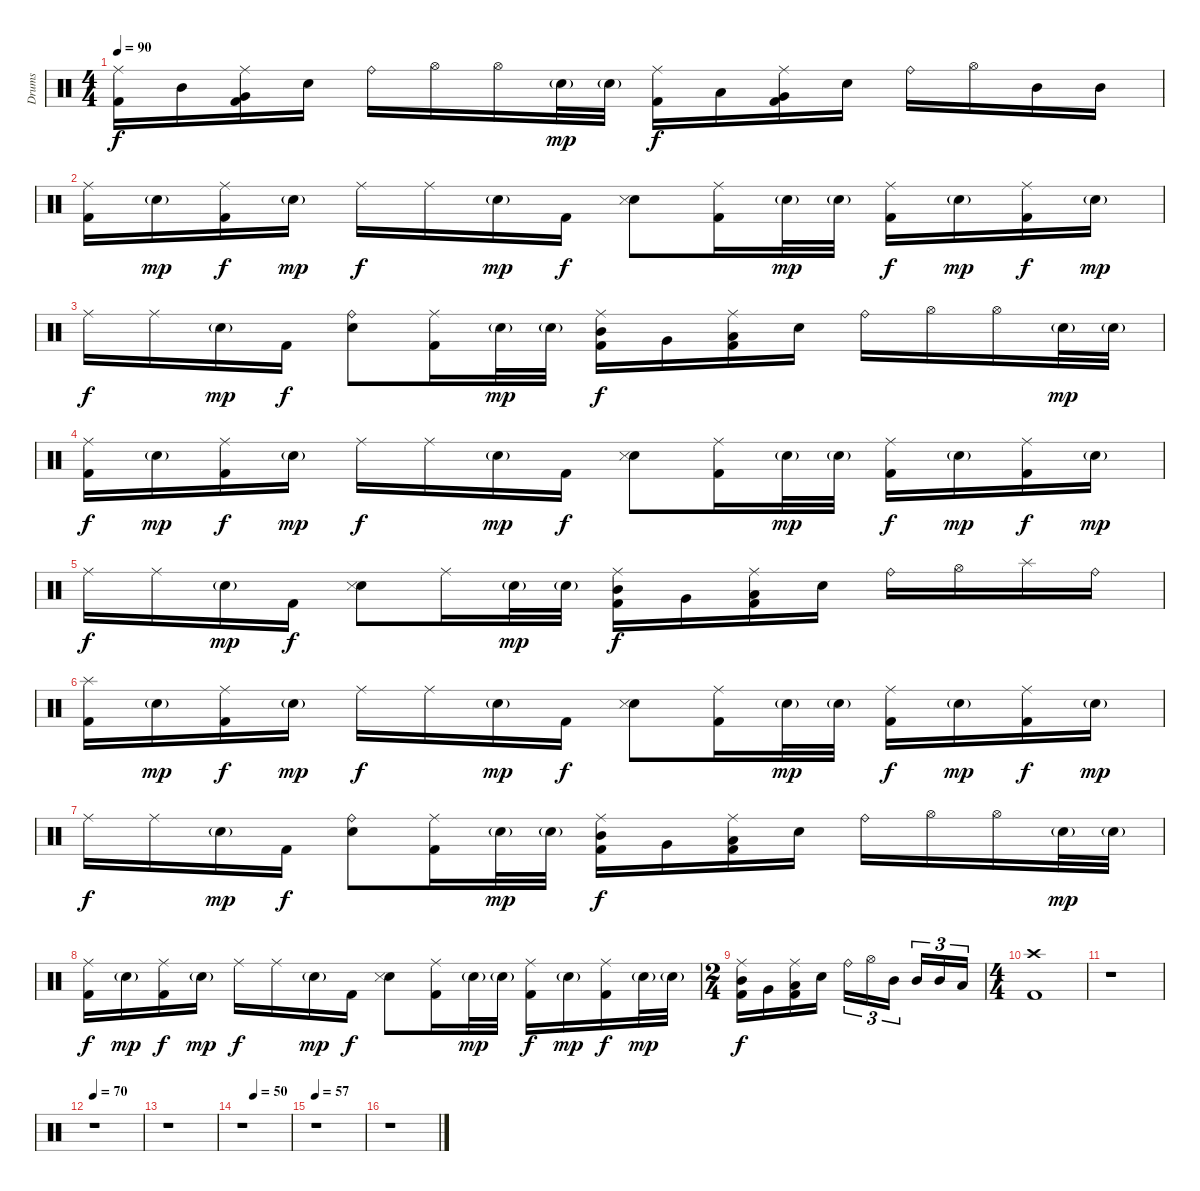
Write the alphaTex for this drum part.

\track ("Drums" "Drums") {instrument percussion}
\staff {score}
\articulation defaults
\ts (4 4)
\tempo 90
\clef neutral
\ks c
("Ride (middle)" "Kick (hit) 2").16{dy f} "Mid Tom (hit)".16 ("Very Low Tom (hit)" "Kick (hit) 2" "Ride (middle)").16 "Electric Snare (hit)".16 "Ride (bell)".16 "Hi-Hat (open)".16 "Hi-Hat (open)".16 "Electric Snare (hit)"{g}.32{dy mp} "Electric Snare (hit)"{g}.32 ("Kick (hit) 2" "Ride (middle)").16{dy f} "Low Tom (hit)".16 ("Very Low Tom (hit)" "Kick (hit) 2" "Ride (middle)").16 "Electric Snare (hit)".16 "Ride (bell)".16 "Hi-Hat (open)".16 "Mid Tom (hit)".16 "Mid Tom (hit)".16 |
("Ride (middle)" "Kick (hit) 2").16 "Electric Snare (hit)"{g}.16{dy mp} ("Ride (middle)" "Kick (hit) 2").16{dy f} "Electric Snare (hit)"{g}.16{dy mp} "Ride (middle)".16{dy f} "Ride (middle)".16 "Electric Snare (hit)"{g}.16{dy mp} "Kick (hit) 2".16{dy f} ("Electric Snare (hit)" "Snare (side stick) 3").8 ("Ride (middle)" "Kick (hit) 2").16 "Electric Snare (hit)"{g}.32{dy mp} "Electric Snare (hit)"{g}.32 ("Kick (hit) 2" "Ride (middle)").16{dy f} "Electric Snare (hit)"{g}.16{dy mp} ("Ride (middle)" "Kick (hit) 2").16{dy f} "Electric Snare (hit)"{g}.16{dy mp} |
"Ride (middle)".16{dy f} "Ride (middle)".16 "Electric Snare (hit)"{g}.16{dy mp} "Kick (hit) 2".16{dy f} ("Electric Snare (hit)" "Ride (bell)").8 ("Ride (middle)" "Kick (hit) 2").16 "Electric Snare (hit)"{g}.32{dy mp} "Electric Snare (hit)"{g}.32 ("Ride (middle)" "Mid Tom (hit)" "Kick (hit) 2").16{dy f} "Very Low Tom (hit)".16 ("Low Floor Tom (hit)" "Ride (middle)" "Kick (hit) 2").16 "Electric Snare (hit)".16 "Ride (bell)".16 "Hi-Hat (open)".16 "Hi-Hat (open)".16 "Electric Snare (hit)"{g}.32{dy mp} "Electric Snare (hit)"{g}.32 |
("Ride (middle)" "Kick (hit) 2").16{dy f} "Electric Snare (hit)"{g}.16{dy mp} ("Ride (middle)" "Kick (hit) 2").16{dy f} "Electric Snare (hit)"{g}.16{dy mp} "Ride (middle)".16{dy f} "Ride (middle)".16 "Electric Snare (hit)"{g}.16{dy mp} "Kick (hit) 2".16{dy f} ("Electric Snare (hit)" "Snare (side stick) 3").8 ("Ride (middle)" "Kick (hit) 2").16 "Electric Snare (hit)"{g}.32{dy mp} "Electric Snare (hit)"{g}.32 ("Kick (hit) 2" "Ride (middle)").16{dy f} "Electric Snare (hit)"{g}.16{dy mp} ("Ride (middle)" "Kick (hit) 2").16{dy f} "Electric Snare (hit)"{g}.16{dy mp} |
"Ride (middle)".16{dy f} "Ride (middle)".16 "Electric Snare (hit)"{g}.16{dy mp} "Kick (hit) 2".16{dy f} ("Electric Snare (hit)" "Snare (side stick) 3").8 "Ride (middle)".16 "Electric Snare (hit)"{g}.32{dy mp} "Electric Snare (hit)"{g}.32 ("Ride (middle)" "Mid Tom (hit)" "Kick (hit) 2").16{dy f} "Very Low Tom (hit)".16 ("Low Floor Tom (hit)" "Ride (middle)" "Kick (hit) 2").16 "Electric Snare (hit)".16 "Ride (bell)".16 "Hi-Hat (open)".16 "Splash (hit)".16 "Ride (bell)".16 |
("Splash (hit)" "Kick (hit) 2").16 "Electric Snare (hit)"{g}.16{dy mp} ("Ride (middle)" "Kick (hit) 2").16{dy f} "Electric Snare (hit)"{g}.16{dy mp} "Ride (middle)".16{dy f} "Ride (middle)".16 "Electric Snare (hit)"{g}.16{dy mp} "Kick (hit) 2".16{dy f} ("Electric Snare (hit)" "Snare (side stick) 3").8 ("Ride (middle)" "Kick (hit) 2").16 "Electric Snare (hit)"{g}.32{dy mp} "Electric Snare (hit)"{g}.32 ("Kick (hit) 2" "Ride (middle)").16{dy f} "Electric Snare (hit)"{g}.16{dy mp} ("Ride (middle)" "Kick (hit) 2").16{dy f} "Electric Snare (hit)"{g}.16{dy mp} |
"Ride (middle)".16{dy f} "Ride (middle)".16 "Electric Snare (hit)"{g}.16{dy mp} "Kick (hit) 2".16{dy f} ("Electric Snare (hit)" "Ride (bell)").8 ("Ride (middle)" "Kick (hit) 2").16 "Electric Snare (hit)"{g}.32{dy mp} "Electric Snare (hit)"{g}.32 ("Ride (middle)" "Mid Tom (hit)" "Kick (hit) 2").16{dy f} "Very Low Tom (hit)".16 ("Low Floor Tom (hit)" "Ride (middle)" "Kick (hit) 2").16 "Electric Snare (hit)".16 "Ride (bell)".16 "Hi-Hat (open)".16 "Hi-Hat (open)".16 "Electric Snare (hit)"{g}.32{dy mp} "Electric Snare (hit)"{g}.32 |
("Ride (middle)" "Kick (hit) 2").16{dy f} "Electric Snare (hit)"{g}.16{dy mp} ("Ride (middle)" "Kick (hit) 2").16{dy f} "Electric Snare (hit)"{g}.16{dy mp} "Ride (middle)".16{dy f} "Ride (middle)".16 "Electric Snare (hit)"{g}.16{dy mp} "Kick (hit) 2".16{dy f} ("Electric Snare (hit)" "Snare (side stick) 3").8 ("Ride (middle)" "Kick (hit) 2").16 "Electric Snare (hit)"{g}.32{dy mp} "Electric Snare (hit)"{g}.32 ("Kick (hit) 2" "Ride (middle)").16{dy f} "Electric Snare (hit)"{g}.16{dy mp} ("Ride (middle)" "Kick (hit) 2").16{dy f} "Electric Snare (hit)"{g}.32{dy mp} "Electric Snare (hit)"{g}.32 |
\ts (2 4)
("Ride (middle)" "Mid Tom (hit)" "Kick (hit) 2").16{dy f} "Very Low Tom (hit)".16 ("Low Floor Tom (hit)" "Ride (middle)" "Kick (hit) 2").16 "Electric Snare (hit)".16 "Ride (bell)".16{tu (3 2)} "Hi-Hat (open)".16{tu (3 2)} "Mid Tom (hit)".16{tu (3 2) beam splitsecondary} "Mid Tom (hit)".16{tu (3 2)} "Mid Tom (hit)".16{tu (3 2)} "Low Tom (hit)".16{tu (3 2)} |
\ts (4 4)
("Crash high (hit)" "Kick (hit) 2").1 |
r.1 |
\tempo 70
r.1 |
r.1 |
\tempo (50 0.25)
r.1 |
\tempo 57
r.1 |
r.1
